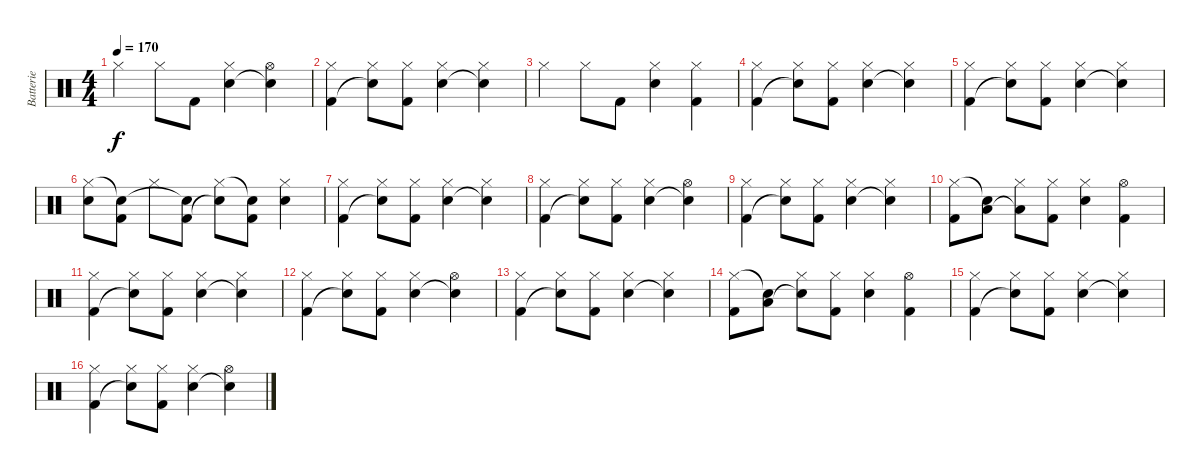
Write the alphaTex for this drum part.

\track ("Batterie" "Batterie") {instrument percussion}
\staff {score}
\articulation defaults
\ts (4 4)
\tempo 170
\clef neutral
\ks c "Hi-Hat (closed)".4{dy f} "Hi-Hat (closed)".8 "Kick (hit) 2".8
("Snare (hit) 2" "Hi-Hat (closed)").4 ("Snare (hit)"{t} "Hi-Hat (open)").4 |
("Kick (hit) 2" "Hi-Hat (closed)").4 ("Snare (hit)"{t} "Hi-Hat (closed)").8 ("Kick (hit) 2" "Hi-Hat (closed)").8 ("Snare (hit) 2" "Hi-Hat (closed)").4 ("Snare (hit)"{t} "Hi-Hat (closed)").4 |
"Hi-Hat (closed)".4 "Hi-Hat (closed)".8 "Kick (hit) 2".8 ("Snare (hit) 2" "Hi-Hat (closed)").4 ("Kick (hit) 2" "Hi-Hat (closed)").4 |
("Kick (hit) 2" "Hi-Hat (closed)").4 ("Snare (hit)"{t} "Hi-Hat (closed)").8 ("Kick (hit) 2" "Hi-Hat (closed)").8 ("Snare (hit) 2" "Hi-Hat (closed)").4 ("Snare (hit)"{t} "Hi-Hat (closed)").4 |
("Kick (hit) 2" "Hi-Hat (closed)").4 ("Snare (hit)"{t} "Hi-Hat (closed)").8 ("Kick (hit) 2" "Hi-Hat (closed)").8 ("Snare (hit) 2" "Hi-Hat (closed)").4 ("Snare (hit)"{t} "Hi-Hat (closed)").4 |
("Snare (hit) 2" "Hi-Hat (closed)").8 ("Kick (hit) 2" "Snare (hit)"{t}).8 "Hi-Hat (closed)".8 ("Kick (hit) 2" "Snare (hit)"{t}).8 ("Snare (hit)"{t} "Hi-Hat (closed)").8 ("Kick (hit) 2" "Snare (hit)"{t}).8 ("Snare (hit) 2" "Hi-Hat (closed)").4 |
("Kick (hit) 2" "Hi-Hat (closed)").4 ("Snare (hit)"{t} "Hi-Hat (closed)").8 ("Kick (hit) 2" "Hi-Hat (closed)").8 ("Snare (hit) 2" "Hi-Hat (closed)").4 ("Snare (hit)"{t} "Hi-Hat (closed)").4 |
("Kick (hit) 2" "Hi-Hat (closed)").4 ("Snare (hit)"{t} "Hi-Hat (closed)").8 ("Kick (hit) 2" "Hi-Hat (closed)").8 ("Snare (hit) 2" "Hi-Hat (closed)").4 ("Snare (hit)"{t} "Hi-Hat (open)").4 |
("Kick (hit) 2" "Hi-Hat (closed)").4 ("Snare (hit)"{t} "Hi-Hat (closed)").8 ("Kick (hit) 2" "Hi-Hat (closed)").8 ("Snare (hit) 2" "Hi-Hat (closed)").4 ("Snare (hit)"{t} "Hi-Hat (closed)").4 |
("Kick (hit) 2" "Hi-Hat (closed)").8 ("Low Tom (hit)" "Snare (hit)"{t}).8 ("Low Tom (hit)"{t} "Hi-Hat (closed)").8 ("Kick (hit) 2" "Hi-Hat (closed)").8 ("Snare (hit) 2" "Hi-Hat (closed)").4 ("Kick (hit) 2" "Hi-Hat (open)").4 |
("Kick (hit) 2" "Hi-Hat (closed)").4 ("Snare (hit)"{t} "Hi-Hat (closed)").8 ("Kick (hit) 2" "Hi-Hat (closed)").8 ("Snare (hit) 2" "Hi-Hat (closed)").4 ("Snare (hit)"{t} "Hi-Hat (closed)").4 |
("Kick (hit) 2" "Hi-Hat (closed)").4 ("Snare (hit)"{t} "Hi-Hat (closed)").8 ("Kick (hit) 2" "Hi-Hat (closed)").8 ("Snare (hit) 2" "Hi-Hat (closed)").4 ("Snare (hit)"{t} "Hi-Hat (open)").4 |
("Kick (hit) 2" "Hi-Hat (closed)").4 ("Snare (hit)"{t} "Hi-Hat (closed)").8 ("Kick (hit) 2" "Hi-Hat (closed)").8 ("Snare (hit) 2" "Hi-Hat (closed)").4 ("Snare (hit)"{t} "Hi-Hat (closed)").4 |
("Kick (hit) 2" "Hi-Hat (closed)").8 ("Low Tom (hit)" "Snare (hit)"{t}).8 ("Snare (hit)"{t} "Hi-Hat (closed)").8 ("Kick (hit) 2" "Hi-Hat (closed)").8 ("Snare (hit) 2" "Hi-Hat (closed)").4 ("Kick (hit) 2" "Hi-Hat (open)").4 |
("Kick (hit) 2" "Hi-Hat (closed)").4 ("Snare (hit)"{t} "Hi-Hat (closed)").8 ("Kick (hit) 2" "Hi-Hat (closed)").8 ("Snare (hit) 2" "Hi-Hat (closed)").4 ("Snare (hit)"{t} "Hi-Hat (closed)").4 |
("Kick (hit) 2" "Hi-Hat (closed)").4 ("Snare (hit)"{t} "Hi-Hat (closed)").8 ("Kick (hit) 2" "Hi-Hat (closed)").8 ("Snare (hit) 2" "Hi-Hat (closed)").4 ("Snare (hit)"{t} "Hi-Hat (open)").4
